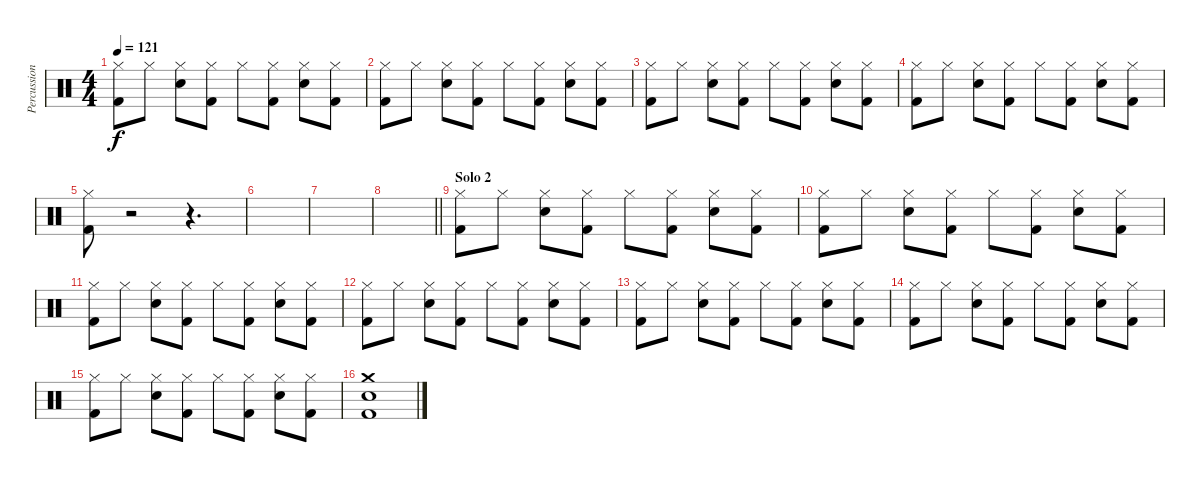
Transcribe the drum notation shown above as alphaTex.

\track ("Percussion" "Percussion") {instrument percussion}
\staff {score}
\articulation defaults
\ts (4 4)
\tempo 121
\clef neutral
\ks c
("Hi-Hat (closed)" "Kick (hit) 2").8{dy f} "Hi-Hat (closed)".8 ("Hi-Hat (closed)" "Snare (hit) 2").8 ("Hi-Hat (closed)" "Kick (hit) 2").8 "Hi-Hat (closed)".8 ("Hi-Hat (closed)" "Kick (hit) 2").8 ("Hi-Hat (closed)" "Snare (hit) 2").8 ("Hi-Hat (closed)" "Kick (hit) 2").8 |
("Hi-Hat (closed)" "Kick (hit) 2").8 "Hi-Hat (closed)".8 ("Hi-Hat (closed)" "Snare (hit) 2").8 ("Hi-Hat (closed)" "Kick (hit) 2").8 "Hi-Hat (closed)".8 ("Hi-Hat (closed)" "Kick (hit) 2").8 ("Hi-Hat (closed)" "Snare (hit) 2").8 ("Hi-Hat (closed)" "Kick (hit) 2").8 |
("Hi-Hat (closed)" "Kick (hit) 2").8 "Hi-Hat (closed)".8 ("Hi-Hat (closed)" "Snare (hit) 2").8 ("Hi-Hat (closed)" "Kick (hit) 2").8 "Hi-Hat (closed)".8 ("Hi-Hat (closed)" "Kick (hit) 2").8 ("Hi-Hat (closed)" "Snare (hit) 2").8 ("Hi-Hat (closed)" "Kick (hit) 2").8 |
("Hi-Hat (closed)" "Kick (hit) 2").8 "Hi-Hat (closed)".8 ("Hi-Hat (closed)" "Snare (hit) 2").8 ("Hi-Hat (closed)" "Kick (hit) 2").8 "Hi-Hat (closed)".8 ("Hi-Hat (closed)" "Kick (hit) 2").8 ("Hi-Hat (closed)" "Snare (hit) 2").8 ("Hi-Hat (closed)" "Kick (hit) 2").8 |
("Hi-Hat (closed)" "Kick (hit) 2").8 r.2 r.4{d} |
|
|
\barLineRight lightlight
|
\section ("" "Solo 2")
("Hi-Hat (closed)" "Kick (hit) 2").8 "Hi-Hat (closed)".8 ("Hi-Hat (closed)" "Snare (hit) 2").8 ("Hi-Hat (closed)" "Kick (hit) 2").8 "Hi-Hat (closed)".8 ("Hi-Hat (closed)" "Kick (hit) 2").8 ("Hi-Hat (closed)" "Snare (hit) 2").8 ("Hi-Hat (closed)" "Kick (hit) 2").8 |
("Hi-Hat (closed)" "Kick (hit) 2").8 "Hi-Hat (closed)".8 ("Hi-Hat (closed)" "Snare (hit) 2").8 ("Hi-Hat (closed)" "Kick (hit) 2").8 "Hi-Hat (closed)".8 ("Hi-Hat (closed)" "Kick (hit) 2").8 ("Hi-Hat (closed)" "Snare (hit) 2").8 ("Hi-Hat (closed)" "Kick (hit) 2").8 |
("Hi-Hat (closed)" "Kick (hit) 2").8 "Hi-Hat (closed)".8 ("Hi-Hat (closed)" "Snare (hit) 2").8 ("Hi-Hat (closed)" "Kick (hit) 2").8 "Hi-Hat (closed)".8 ("Hi-Hat (closed)" "Kick (hit) 2").8 ("Hi-Hat (closed)" "Snare (hit) 2").8 ("Hi-Hat (closed)" "Kick (hit) 2").8 |
("Hi-Hat (closed)" "Kick (hit) 2").8 "Hi-Hat (closed)".8 ("Hi-Hat (closed)" "Snare (hit) 2").8 ("Hi-Hat (closed)" "Kick (hit) 2").8 "Hi-Hat (closed)".8 ("Hi-Hat (closed)" "Kick (hit) 2").8 ("Hi-Hat (closed)" "Snare (hit) 2").8 ("Hi-Hat (closed)" "Kick (hit) 2").8 |
("Hi-Hat (closed)" "Kick (hit) 2").8 "Hi-Hat (closed)".8 ("Hi-Hat (closed)" "Snare (hit) 2").8 ("Hi-Hat (closed)" "Kick (hit) 2").8 "Hi-Hat (closed)".8 ("Hi-Hat (closed)" "Kick (hit) 2").8 ("Hi-Hat (closed)" "Snare (hit) 2").8 ("Hi-Hat (closed)" "Kick (hit) 2").8 |
("Hi-Hat (closed)" "Kick (hit) 2").8 "Hi-Hat (closed)".8 ("Hi-Hat (closed)" "Snare (hit) 2").8 ("Hi-Hat (closed)" "Kick (hit) 2").8 "Hi-Hat (closed)".8 ("Hi-Hat (closed)" "Kick (hit) 2").8 ("Hi-Hat (closed)" "Snare (hit) 2").8 ("Hi-Hat (closed)" "Kick (hit) 2").8 |
("Hi-Hat (closed)" "Kick (hit) 2").8 "Hi-Hat (closed)".8 ("Hi-Hat (closed)" "Snare (hit) 2").8 ("Hi-Hat (closed)" "Kick (hit) 2").8 "Hi-Hat (closed)".8 ("Hi-Hat (closed)" "Kick (hit) 2").8 ("Hi-Hat (closed)" "Snare (hit) 2").8 ("Hi-Hat (closed)" "Kick (hit) 2").8 |
("Crash medium (hit)" "Snare (hit) 2" "Kick (hit) 2").1
